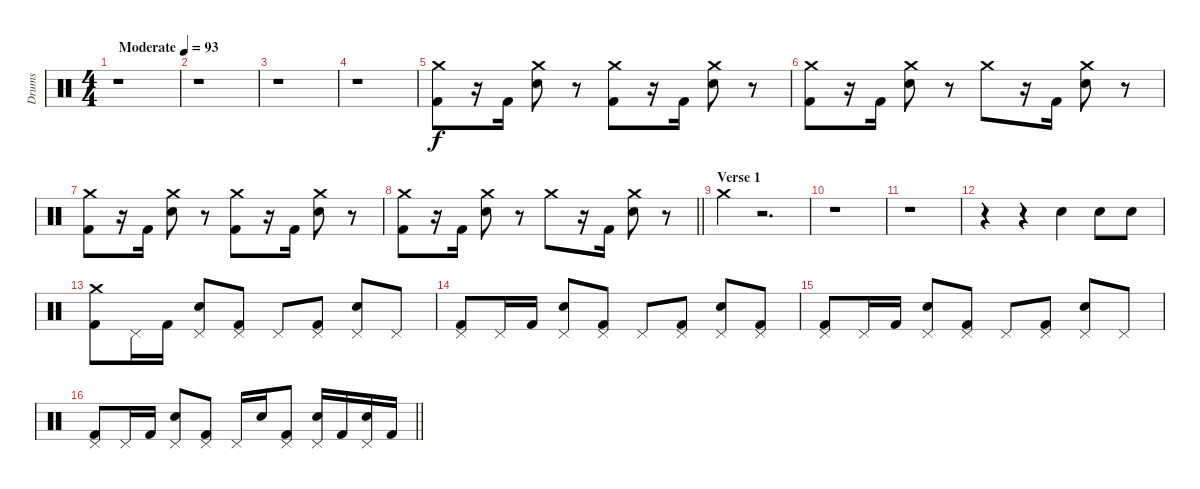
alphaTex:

\track ("Drums" "Drums") {instrument percussion}
\staff {score}
\articulation defaults
\ts (4 4)
\tempo (93 "Moderate")
\clef neutral
\ks c
r.1{dy f} |
r.1 |
r.1 |
r.1 |
("Crash medium (hit)" "Kick (hit) 2").8 r.16 "Kick (hit) 2".16 ("Crash medium (hit)" "Snare (hit) 2").8 r.8 ("Crash medium (hit)" "Kick (hit) 2").8 r.16 "Kick (hit) 2".16 ("Crash medium (hit)" "Snare (hit) 2").8 r.8 |
("Crash medium (hit)" "Kick (hit) 2").8 r.16 "Kick (hit) 2".16 ("Crash medium (hit)" "Snare (hit) 2").8 r.8 "Crash medium (hit)".8 r.16 "Kick (hit) 2".16 ("Crash medium (hit)" "Snare (hit) 2").8 r.8 |
("Crash medium (hit)" "Kick (hit) 2").8 r.16 "Kick (hit) 2".16 ("Crash medium (hit)" "Snare (hit) 2").8 r.8 ("Crash medium (hit)" "Kick (hit) 2").8 r.16 "Kick (hit) 2".16 ("Crash medium (hit)" "Snare (hit) 2").8 r.8 |
\barLineRight lightlight
("Crash medium (hit)" "Kick (hit) 2").8 r.16 "Kick (hit) 2".16 ("Crash medium (hit)" "Snare (hit) 2").8 r.8 "Crash medium (hit)".8 r.16 "Kick (hit) 2".16 ("Crash medium (hit)" "Snare (hit) 2").8 r.8 |
\section ("" "Verse 1")
"Crash medium (hit)".4 r.2{d} |
r.1 |
r.1 |
r.4 r.4 "Snare (hit) 2".4 "Snare (hit) 2".8 "Snare (hit) 2".8 |
("Crash medium (hit)" "Kick (hit) 2").8 "Pedal Hi-Hat (hit)".16 "Kick (hit) 2".16 ("Pedal Hi-Hat (hit)" "Snare (hit) 2").8 ("Pedal Hi-Hat (hit)" "Kick (hit) 2").8 "Pedal Hi-Hat (hit)".8 ("Pedal Hi-Hat (hit)" "Kick (hit) 2").8 ("Pedal Hi-Hat (hit)" "Snare (hit) 2").8 "Pedal Hi-Hat (hit)".8 |
("Pedal Hi-Hat (hit)" "Kick (hit) 2").8 "Pedal Hi-Hat (hit)".16 "Kick (hit) 2".16 ("Pedal Hi-Hat (hit)" "Snare (hit) 2").8 ("Pedal Hi-Hat (hit)" "Kick (hit) 2").8 "Pedal Hi-Hat (hit)".8 ("Pedal Hi-Hat (hit)" "Kick (hit) 2").8 ("Pedal Hi-Hat (hit)" "Snare (hit) 2").8 ("Pedal Hi-Hat (hit)" "Kick (hit) 2").8 |
("Pedal Hi-Hat (hit)" "Kick (hit) 2").8 "Pedal Hi-Hat (hit)".16 "Kick (hit) 2".16 ("Pedal Hi-Hat (hit)" "Snare (hit) 2").8 ("Pedal Hi-Hat (hit)" "Kick (hit) 2").8 "Pedal Hi-Hat (hit)".8 ("Pedal Hi-Hat (hit)" "Kick (hit) 2").8 ("Pedal Hi-Hat (hit)" "Snare (hit) 2").8 "Pedal Hi-Hat (hit)".8 |
\barLineRight lightlight
("Pedal Hi-Hat (hit)" "Kick (hit) 2").8 "Pedal Hi-Hat (hit)".16 "Kick (hit) 2".16 ("Pedal Hi-Hat (hit)" "Snare (hit) 2").8 ("Pedal Hi-Hat (hit)" "Kick (hit) 2").8 "Pedal Hi-Hat (hit)".16 "Snare (hit) 2".16 ("Pedal Hi-Hat (hit)" "Kick (hit) 2").8 ("Pedal Hi-Hat (hit)" "Snare (hit) 2").16 "Kick (hit) 2".16 ("Pedal Hi-Hat (hit)" "Snare (hit) 2").16 "Kick (hit) 2".16
